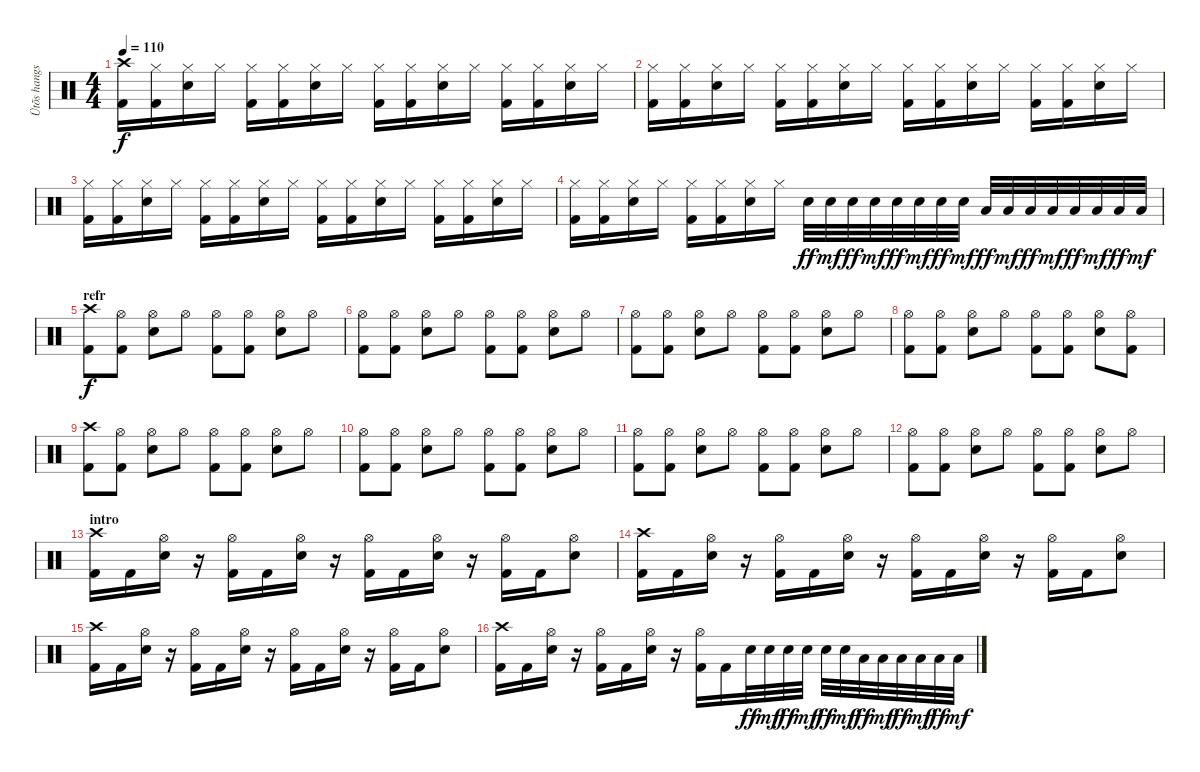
\track ("Ütõs hangszer" "Ütõs hangs") {instrument percussion}
\staff {score}
\articulation defaults
\ts (4 4)
\tempo 110
\clef neutral
\ks c
("Crash high (hit)" "Kick (hit) 2").16{dy f} ("Hi-Hat (closed)" "Kick (hit) 2").16 ("Hi-Hat (closed)" "Snare (hit) 2").16 "Hi-Hat (closed)".16 ("Hi-Hat (closed)" "Kick (hit) 2").16 ("Hi-Hat (closed)" "Kick (hit) 2").16 ("Hi-Hat (closed)" "Snare (hit) 2").16 "Hi-Hat (closed)".16 ("Hi-Hat (closed)" "Kick (hit) 2").16 ("Hi-Hat (closed)" "Kick (hit) 2").16 ("Hi-Hat (closed)" "Snare (hit) 2").16 "Hi-Hat (closed)".16 ("Hi-Hat (closed)" "Kick (hit) 2").16 ("Hi-Hat (closed)" "Kick (hit) 2").16 ("Hi-Hat (closed)" "Snare (hit) 2").16 "Hi-Hat (closed)".16 |
("Hi-Hat (closed)" "Kick (hit) 2").16 ("Hi-Hat (closed)" "Kick (hit) 2").16 ("Hi-Hat (closed)" "Snare (hit) 2").16 "Hi-Hat (closed)".16 ("Hi-Hat (closed)" "Kick (hit) 2").16 ("Hi-Hat (closed)" "Kick (hit) 2").16 ("Hi-Hat (closed)" "Snare (hit) 2").16 "Hi-Hat (closed)".16 ("Hi-Hat (closed)" "Kick (hit) 2").16 ("Hi-Hat (closed)" "Kick (hit) 2").16 ("Hi-Hat (closed)" "Snare (hit) 2").16 "Hi-Hat (closed)".16 ("Hi-Hat (closed)" "Kick (hit) 2").16 ("Hi-Hat (closed)" "Kick (hit) 2").16 ("Hi-Hat (closed)" "Snare (hit) 2").16 "Hi-Hat (closed)".16 |
("Hi-Hat (closed)" "Kick (hit) 2").16 ("Hi-Hat (closed)" "Kick (hit) 2").16 ("Hi-Hat (closed)" "Snare (hit) 2").16 "Hi-Hat (closed)".16 ("Hi-Hat (closed)" "Kick (hit) 2").16 ("Hi-Hat (closed)" "Kick (hit) 2").16 ("Hi-Hat (closed)" "Snare (hit) 2").16 "Hi-Hat (closed)".16 ("Hi-Hat (closed)" "Kick (hit) 2").16 ("Hi-Hat (closed)" "Kick (hit) 2").16 ("Hi-Hat (closed)" "Snare (hit) 2").16 "Hi-Hat (closed)".16 ("Hi-Hat (closed)" "Kick (hit) 2").16 ("Hi-Hat (closed)" "Kick (hit) 2").16 ("Hi-Hat (closed)" "Snare (hit) 2").16 "Hi-Hat (closed)".16 |
("Hi-Hat (closed)" "Kick (hit) 2").16 ("Hi-Hat (closed)" "Kick (hit) 2").16 ("Hi-Hat (closed)" "Snare (hit) 2").16 "Hi-Hat (closed)".16 ("Hi-Hat (closed)" "Kick (hit) 2").16 ("Hi-Hat (closed)" "Kick (hit) 2").16 ("Hi-Hat (closed)" "Snare (hit) 2").16 "Hi-Hat (closed)".16 "Snare (hit) 2".32{dy ff} "Snare (hit) 2".32{dy mf} "Snare (hit) 2".32{dy ff} "Snare (hit) 2".32{dy mf} "Snare (hit) 2".32{dy ff} "Snare (hit) 2".32{dy mf} "Snare (hit) 2".32{dy ff} "Snare (hit) 2".32{dy mf} "Low Tom (hit)".32{dy ff} "Low Tom (hit)".32{dy mf} "Low Tom (hit)".32{dy ff} "Low Tom (hit)".32{dy mf} "Low Tom (hit)".32{dy ff} "Low Tom (hit)".32{dy mf} "Low Tom (hit)".32{dy ff} "Low Tom (hit)".32{dy mf} |
\section ("" "refr")
("Crash high (hit)" "Kick (hit) 2").8{dy f} ("Hi-Hat (open)" "Kick (hit) 2").8 ("Hi-Hat (open)" "Snare (hit) 2").8 "Hi-Hat (open)".8 ("Hi-Hat (open)" "Kick (hit) 2").8 ("Hi-Hat (open)" "Kick (hit) 2").8 ("Hi-Hat (open)" "Snare (hit) 2").8 "Hi-Hat (open)".8 |
("Hi-Hat (open)" "Kick (hit) 2").8 ("Hi-Hat (open)" "Kick (hit) 2").8 ("Hi-Hat (open)" "Snare (hit) 2").8 "Hi-Hat (open)".8 ("Hi-Hat (open)" "Kick (hit) 2").8 ("Hi-Hat (open)" "Kick (hit) 2").8 ("Hi-Hat (open)" "Snare (hit) 2").8 "Hi-Hat (open)".8 |
("Hi-Hat (open)" "Kick (hit) 2").8 ("Hi-Hat (open)" "Kick (hit) 2").8 ("Hi-Hat (open)" "Snare (hit) 2").8 "Hi-Hat (open)".8 ("Hi-Hat (open)" "Kick (hit) 2").8 ("Hi-Hat (open)" "Kick (hit) 2").8 ("Hi-Hat (open)" "Snare (hit) 2").8 "Hi-Hat (open)".8 |
("Hi-Hat (open)" "Kick (hit) 2").8 ("Hi-Hat (open)" "Kick (hit) 2").8 ("Hi-Hat (open)" "Snare (hit) 2").8 "Hi-Hat (open)".8 ("Hi-Hat (open)" "Kick (hit) 2").8 ("Hi-Hat (open)" "Kick (hit) 2").8 ("Hi-Hat (open)" "Snare (hit) 2").8 ("Hi-Hat (open)" "Kick (hit) 2").8 |
("Crash high (hit)" "Kick (hit) 2").8 ("Hi-Hat (open)" "Kick (hit) 2").8 ("Hi-Hat (open)" "Snare (hit) 2").8 "Hi-Hat (open)".8 ("Hi-Hat (open)" "Kick (hit) 2").8 ("Hi-Hat (open)" "Kick (hit) 2").8 ("Hi-Hat (open)" "Snare (hit) 2").8 "Hi-Hat (open)".8 |
("Hi-Hat (open)" "Kick (hit) 2").8 ("Hi-Hat (open)" "Kick (hit) 2").8 ("Hi-Hat (open)" "Snare (hit) 2").8 "Hi-Hat (open)".8 ("Hi-Hat (open)" "Kick (hit) 2").8 ("Hi-Hat (open)" "Kick (hit) 2").8 ("Hi-Hat (open)" "Snare (hit) 2").8 "Hi-Hat (open)".8 |
("Hi-Hat (open)" "Kick (hit) 2").8 ("Hi-Hat (open)" "Kick (hit) 2").8 ("Hi-Hat (open)" "Snare (hit) 2").8 "Hi-Hat (open)".8 ("Hi-Hat (open)" "Kick (hit) 2").8 ("Hi-Hat (open)" "Kick (hit) 2").8 ("Hi-Hat (open)" "Snare (hit) 2").8 "Hi-Hat (open)".8 |
("Hi-Hat (open)" "Kick (hit) 2").8 ("Hi-Hat (open)" "Kick (hit) 2").8 ("Hi-Hat (open)" "Snare (hit) 2").8 "Hi-Hat (open)".8 ("Hi-Hat (open)" "Kick (hit) 2").8 ("Hi-Hat (open)" "Kick (hit) 2").8 ("Hi-Hat (open)" "Snare (hit) 2").8 "Hi-Hat (open)".8 |
\section ("" "intro")
("Crash high (hit)" "Kick (hit) 2").16 "Kick (hit) 2".16 ("Hi-Hat (open)" "Snare (hit) 2").16 r.16 ("Hi-Hat (open)" "Kick (hit) 2").16 "Kick (hit) 2".16 ("Hi-Hat (open)" "Snare (hit) 2").16 r.16 ("Hi-Hat (open)" "Kick (hit) 2").16 "Kick (hit) 2".16 ("Hi-Hat (open)" "Snare (hit) 2").16 r.16 ("Hi-Hat (open)" "Kick (hit) 2").16 "Kick (hit) 2".16 ("Hi-Hat (open)" "Snare (hit) 2").8 |
("Crash high (hit)" "Kick (hit) 2").16 "Kick (hit) 2".16 ("Hi-Hat (open)" "Snare (hit) 2").16 r.16 ("Hi-Hat (open)" "Kick (hit) 2").16 "Kick (hit) 2".16 ("Hi-Hat (open)" "Snare (hit) 2").16 r.16 ("Hi-Hat (open)" "Kick (hit) 2").16 "Kick (hit) 2".16 ("Hi-Hat (open)" "Snare (hit) 2").16 r.16 ("Hi-Hat (open)" "Kick (hit) 2").16 "Kick (hit) 2".16 ("Hi-Hat (open)" "Snare (hit) 2").8 |
("Crash high (hit)" "Kick (hit) 2").16 "Kick (hit) 2".16 ("Hi-Hat (open)" "Snare (hit) 2").16 r.16 ("Hi-Hat (open)" "Kick (hit) 2").16 "Kick (hit) 2".16 ("Hi-Hat (open)" "Snare (hit) 2").16 r.16 ("Hi-Hat (open)" "Kick (hit) 2").16 "Kick (hit) 2".16 ("Hi-Hat (open)" "Snare (hit) 2").16 r.16 ("Hi-Hat (open)" "Kick (hit) 2").16 "Kick (hit) 2".16 ("Hi-Hat (open)" "Snare (hit) 2").8 |
("Crash high (hit)" "Kick (hit) 2").16 "Kick (hit) 2".16 ("Hi-Hat (open)" "Snare (hit) 2").16 r.16 ("Hi-Hat (open)" "Kick (hit) 2").16 "Kick (hit) 2".16 ("Hi-Hat (open)" "Snare (hit) 2").16 r.16 ("Hi-Hat (open)" "Kick (hit) 2").16 "Kick (hit) 2".16 "Snare (hit) 2".32{dy ff} "Snare (hit) 2".32{dy mf} "Snare (hit) 2".32{dy ff} "Snare (hit) 2".32{dy mf} "Snare (hit) 2".32{dy ff} "Snare (hit) 2".32{dy mf} "Low Tom (hit)".32{dy ff} "Low Tom (hit)".32{dy mf} "Low Tom (hit)".32{dy ff} "Low Tom (hit)".32{dy mf} "Low Tom (hit)".32{dy ff} "Low Tom (hit)".32{dy mf}
